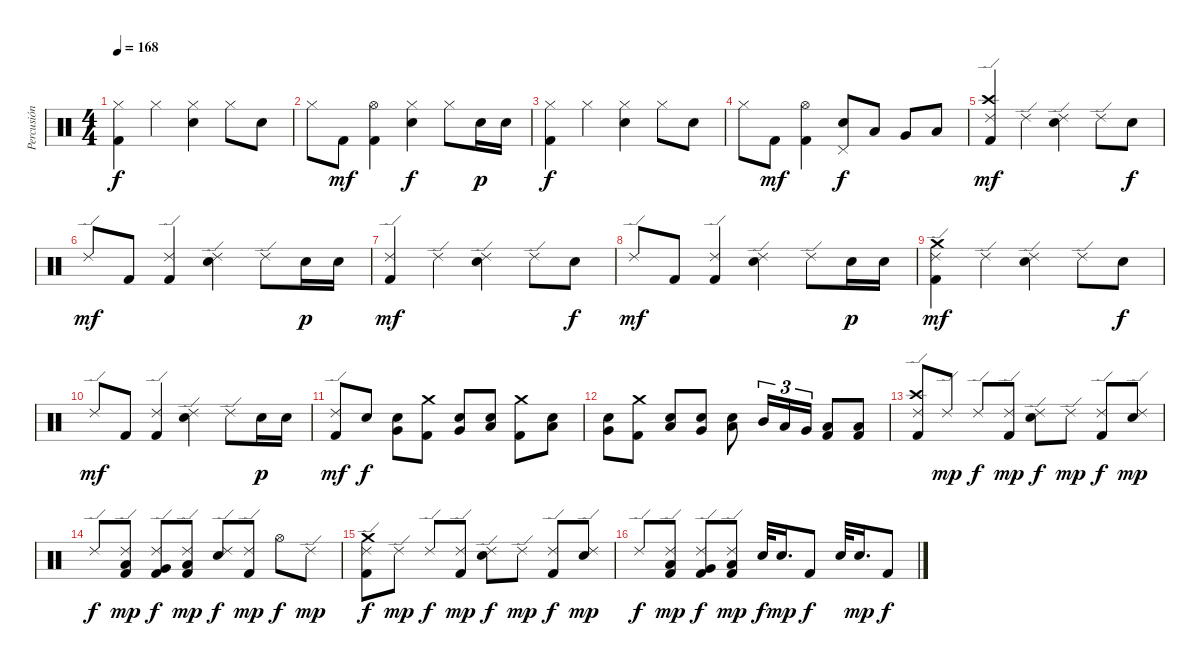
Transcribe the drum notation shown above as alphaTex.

\track ("Percusión" "Percusión") {instrument percussion}
\staff {score}
\articulation defaults
\ts (4 4)
\tempo 168
\clef neutral
\ks c
("Hi-Hat (closed)" "Kick (hit) 2").4{dy f} "Hi-Hat (closed)".4 ("Hi-Hat (closed)" "Electric Snare (hit)").4 "Hi-Hat (closed)".8 "Electric Snare (hit)".8 |
"Hi-Hat (closed)".8 "Kick (hit) 2".8{dy mf} ("Hi-Hat (open)" "Kick (hit) 2").4 ("Hi-Hat (closed)" "Electric Snare (hit)").4{dy f} "Hi-Hat (closed)".8 "Electric Snare (hit)".16{dy p} "Electric Snare (hit)".16 |
("Hi-Hat (closed)" "Kick (hit) 2").4{dy f} "Hi-Hat (closed)".4 ("Hi-Hat (closed)" "Electric Snare (hit)").4 "Hi-Hat (closed)".8 "Electric Snare (hit)".8 |
"Hi-Hat (closed)".8 "Kick (hit) 2".8{dy mf} ("Hi-Hat (open)" "Kick (hit) 2").4 ("Pedal Hi-Hat (hit)" "Electric Snare (hit)").8{dy f} "Low Tom (hit)".8 "Very Low Tom (hit)".8 "Low Floor Tom (hit)".8 |
("Crash high (hit)" "Ride (edge) 2" "Kick (hit) 2").4{dy mf} "Ride (edge) 2".4 ("Ride (edge) 2" "Electric Snare (hit)").4 "Ride (edge) 2".8 "Electric Snare (hit)".8{dy f} |
"Ride (edge) 2".8{dy mf} "Kick (hit) 2".8 ("Ride (edge) 2" "Kick (hit) 2").4 ("Ride (edge) 2" "Electric Snare (hit)").4 "Ride (edge) 2".8 "Electric Snare (hit)".16{dy p} "Electric Snare (hit)".16 |
("Ride (edge) 2" "Kick (hit) 2").4{dy mf} "Ride (edge) 2".4 ("Ride (edge) 2" "Electric Snare (hit)").4 "Ride (edge) 2".8 "Electric Snare (hit)".8{dy f} |
"Ride (edge) 2".8{dy mf} "Kick (hit) 2".8 ("Ride (edge) 2" "Kick (hit) 2").4 ("Ride (edge) 2" "Electric Snare (hit)").4 "Ride (edge) 2".8 "Electric Snare (hit)".16{dy p} "Electric Snare (hit)".16 |
("Crash medium (hit)" "Ride (edge) 2" "Kick (hit) 2").4{dy mf} "Ride (edge) 2".4 ("Ride (edge) 2" "Electric Snare (hit)").4 "Ride (edge) 2".8 "Electric Snare (hit)".8{dy f} |
"Ride (edge) 2".8{dy mf} "Kick (hit) 2".8 ("Ride (edge) 2" "Kick (hit) 2").4 ("Ride (edge) 2" "Electric Snare (hit)").4 "Ride (edge) 2".8 "Electric Snare (hit)".16{dy p} "Electric Snare (hit)".16 |
("Ride (edge) 2" "Kick (hit) 2").8{dy mf} "Electric Snare (hit)".8{dy f} ("Very Low Tom (hit)" "Electric Snare (hit)").8 ("Crash medium (hit)" "Kick (hit) 2").8 ("Very Low Tom (hit)" "Electric Snare (hit)").8 ("Low Floor Tom (hit)" "Electric Snare (hit)").8 ("Crash medium (hit)" "Kick (hit) 2").8 ("Low Tom (hit)" "Electric Snare (hit)").8 |
("Very Low Tom (hit)" "Electric Snare (hit)").8 ("Crash medium (hit)" "Kick (hit) 2").8 ("Low Tom (hit)" "Electric Snare (hit)").8 ("Very Low Tom (hit)" "Electric Snare (hit)").8 ("Low Floor Tom (hit)" "Electric Snare (hit)").8 "Mid Tom (hit)".16{tu (3 2)} "Low Tom (hit)".16{tu (3 2)} "Very Low Tom (hit)".16{tu (3 2)} ("Low Floor Tom (hit)" "Kick (hit) 2").8 ("Low Floor Tom (hit)" "Kick (hit) 2").8 |
("Crash high (hit)" "Ride (edge) 2" "Kick (hit) 2").8 "Ride (edge) 2".8{dy mp} "Ride (edge) 2".8{dy f} ("Ride (edge) 2" "Kick (hit) 2").8{dy mp} ("Ride (edge) 2" "Electric Snare (hit)").8{dy f} "Ride (edge) 2".8{dy mp} ("Ride (edge) 2" "Kick (hit) 2").8{dy f} ("Ride (edge) 2" "Electric Snare (hit)").8{dy mp} |
"Ride (edge) 2".8{dy f} ("Ride (edge) 2" "Low Tom (hit)" "Kick (hit) 2").8{dy mp} ("Ride (edge) 2" "Very Low Tom (hit)" "Kick (hit) 2").8{dy f} ("Ride (edge) 2" "Low Floor Tom (hit)" "Kick (hit) 2").8{dy mp} ("Ride (edge) 2" "Electric Snare (hit)").8{dy f} ("Ride (edge) 2" "Kick (hit) 2").8{dy mp} "Hi-Hat (open)".8{dy f} "Ride (edge) 2".8{dy mp} |
("Crash medium (hit)" "Ride (edge) 2" "Kick (hit) 2").8{dy f} "Ride (edge) 2".8{dy mp} "Ride (edge) 2".8{dy f} ("Ride (edge) 2" "Kick (hit) 2").8{dy mp} ("Ride (edge) 2" "Electric Snare (hit)").8{dy f} "Ride (edge) 2".8{dy mp} ("Ride (edge) 2" "Kick (hit) 2").8{dy f} ("Ride (edge) 2" "Electric Snare (hit)").8{dy mp} |
"Ride (edge) 2".8{dy f} ("Ride (edge) 2" "Low Tom (hit)" "Kick (hit) 2").8{dy mp} ("Ride (edge) 2" "Very Low Tom (hit)" "Kick (hit) 2").8{dy f} ("Ride (edge) 2" "Low Floor Tom (hit)" "Kick (hit) 2").8{dy mp} "Electric Snare (hit)".32{dy f} "Electric Snare (hit)".16{d dy mp} "Kick (hit) 2".8{dy f} "Electric Snare (hit)".32 "Electric Snare (hit)".16{d dy mp} "Kick (hit) 2".8{dy f}
